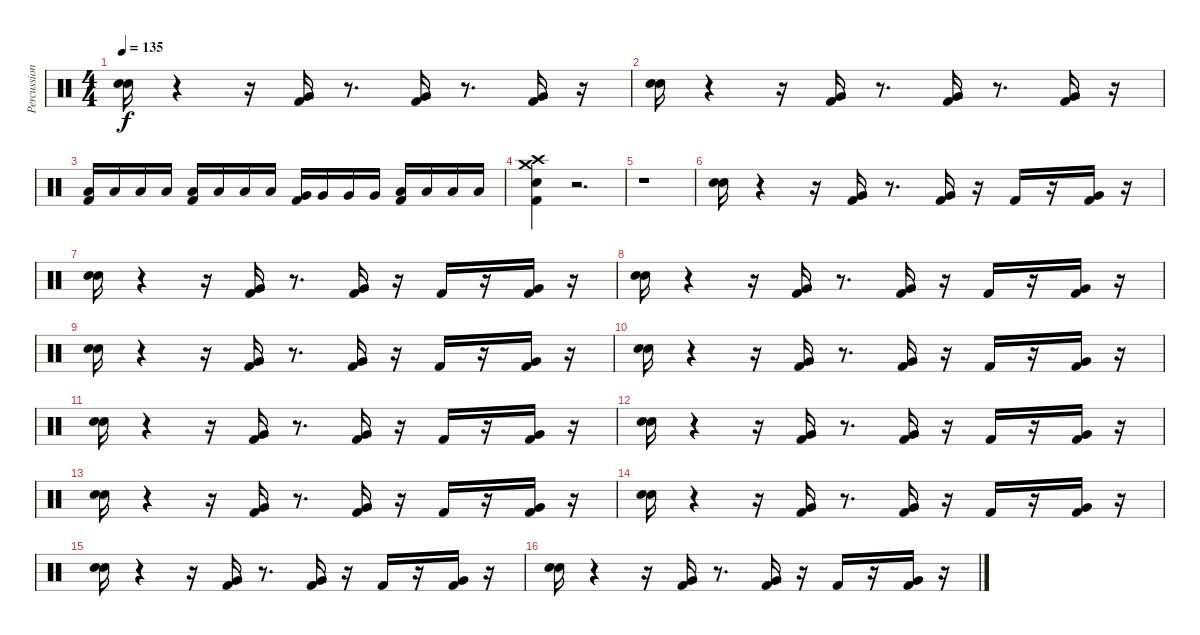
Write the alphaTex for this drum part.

\track ("Percussion" "Percussion") {instrument percussion}
\staff {score}
\articulation defaults
\ts (4 4)
\tempo 135
\clef neutral
\ks c
("Snare (hit) 2" "Electric Snare (hit)").16{dy f} r.4 r.16 ("Kick (hit) 2" "Very Low Tom (hit)").16 r.8{d} ("Kick (hit) 2" "Very Low Tom (hit)").16 r.8{d} ("Kick (hit) 2" "Very Low Tom (hit)").16 r.16 |
("Snare (hit) 2" "Electric Snare (hit)").16 r.4 r.16 ("Kick (hit) 2" "Very Low Tom (hit)").16 r.8{d} ("Kick (hit) 2" "Very Low Tom (hit)").16 r.8{d} ("Kick (hit) 2" "Very Low Tom (hit)").16 r.16 |
("Kick (hit) 2" "Low Tom (hit)").16 "Low Tom (hit)".16 "Low Tom (hit)".16 "Low Tom (hit)".16 ("Kick (hit) 2" "Low Tom (hit)").16 "Low Tom (hit)".16 "Low Tom (hit)".16 "Low Tom (hit)".16 ("Kick (hit) 2" "Very Low Tom (hit)").16 "Very Low Tom (hit)".16 "Very Low Tom (hit)".16 "Very Low Tom (hit)".16 ("Kick (hit) 2" "Low Floor Tom (hit)").16 "Low Floor Tom (hit)".16 "Low Floor Tom (hit)".16 "Low Floor Tom (hit)".16 |
("Kick (hit) 2" "Electric Snare (hit)" "Crash high (hit)" "Crash medium (hit)").4 r.2{d} |
r.1 |
("Snare (hit) 2" "Electric Snare (hit)").16 r.4 r.16 ("Kick (hit) 2" "Very Low Tom (hit)").16 r.8{d} ("Kick (hit) 2" "Very Low Tom (hit)").16 r.16 "Kick (hit) 2".16 r.16 ("Kick (hit) 2" "Very Low Tom (hit)").16 r.16 |
("Snare (hit) 2" "Electric Snare (hit)").16 r.4 r.16 ("Kick (hit) 2" "Very Low Tom (hit)").16 r.8{d} ("Kick (hit) 2" "Very Low Tom (hit)").16 r.16 "Kick (hit) 2".16 r.16 ("Kick (hit) 2" "Very Low Tom (hit)").16 r.16 |
("Snare (hit) 2" "Electric Snare (hit)").16 r.4 r.16 ("Kick (hit) 2" "Very Low Tom (hit)").16 r.8{d} ("Kick (hit) 2" "Very Low Tom (hit)").16 r.16 "Kick (hit) 2".16 r.16 ("Kick (hit) 2" "Very Low Tom (hit)").16 r.16 |
("Snare (hit) 2" "Electric Snare (hit)").16 r.4 r.16 ("Kick (hit) 2" "Very Low Tom (hit)").16 r.8{d} ("Kick (hit) 2" "Very Low Tom (hit)").16 r.16 "Kick (hit) 2".16 r.16 ("Kick (hit) 2" "Very Low Tom (hit)").16 r.16 |
("Snare (hit) 2" "Electric Snare (hit)").16 r.4 r.16 ("Kick (hit) 2" "Very Low Tom (hit)").16 r.8{d} ("Kick (hit) 2" "Very Low Tom (hit)").16 r.16 "Kick (hit) 2".16 r.16 ("Kick (hit) 2" "Very Low Tom (hit)").16 r.16 |
("Snare (hit) 2" "Electric Snare (hit)").16 r.4 r.16 ("Kick (hit) 2" "Very Low Tom (hit)").16 r.8{d} ("Kick (hit) 2" "Very Low Tom (hit)").16 r.16 "Kick (hit) 2".16 r.16 ("Kick (hit) 2" "Very Low Tom (hit)").16 r.16 |
("Snare (hit) 2" "Electric Snare (hit)").16 r.4 r.16 ("Kick (hit) 2" "Very Low Tom (hit)").16 r.8{d} ("Kick (hit) 2" "Very Low Tom (hit)").16 r.16 "Kick (hit) 2".16 r.16 ("Kick (hit) 2" "Very Low Tom (hit)").16 r.16 |
("Snare (hit) 2" "Electric Snare (hit)").16 r.4 r.16 ("Kick (hit) 2" "Very Low Tom (hit)").16 r.8{d} ("Kick (hit) 2" "Very Low Tom (hit)").16 r.16 "Kick (hit) 2".16 r.16 ("Kick (hit) 2" "Very Low Tom (hit)").16 r.16 |
("Snare (hit) 2" "Electric Snare (hit)").16 r.4 r.16 ("Kick (hit) 2" "Very Low Tom (hit)").16 r.8{d} ("Kick (hit) 2" "Very Low Tom (hit)").16 r.16 "Kick (hit) 2".16 r.16 ("Kick (hit) 2" "Very Low Tom (hit)").16 r.16 |
("Snare (hit) 2" "Electric Snare (hit)").16 r.4 r.16 ("Kick (hit) 2" "Very Low Tom (hit)").16 r.8{d} ("Kick (hit) 2" "Very Low Tom (hit)").16 r.16 "Kick (hit) 2".16 r.16 ("Kick (hit) 2" "Very Low Tom (hit)").16 r.16 |
("Snare (hit) 2" "Electric Snare (hit)").16 r.4 r.16 ("Kick (hit) 2" "Very Low Tom (hit)").16 r.8{d} ("Kick (hit) 2" "Very Low Tom (hit)").16 r.16 "Kick (hit) 2".16 r.16 ("Kick (hit) 2" "Very Low Tom (hit)").16 r.16
